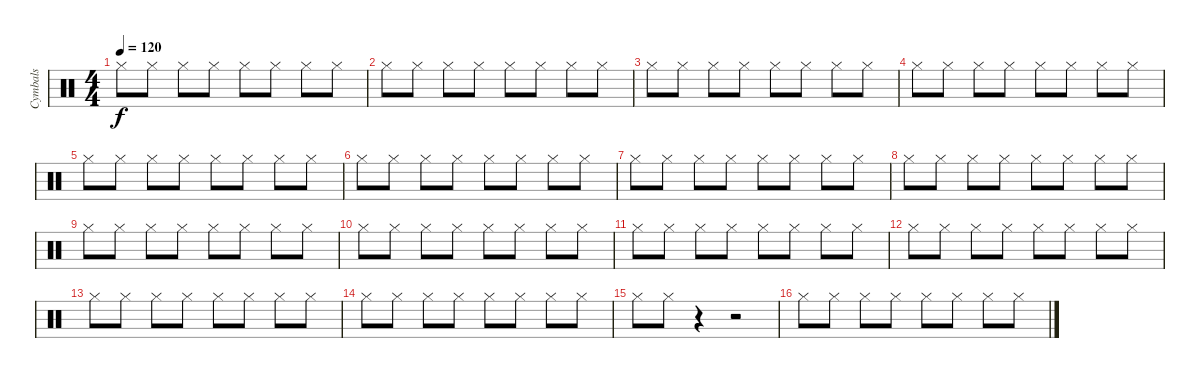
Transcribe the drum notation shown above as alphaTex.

\track ("Cymbals" "Cymbals") {instrument percussion}
\staff {score}
\articulation defaults
\ts (4 4)
\tempo 120
\clef neutral
\ks c "Hi-Hat (closed)".8{dy f} "Hi-Hat (closed)".8 "Hi-Hat (closed)".8 "Hi-Hat (closed)".8 "Hi-Hat (closed)".8 "Hi-Hat (closed)".8 "Hi-Hat (closed)".8 "Hi-Hat (closed)".8
|
"Hi-Hat (closed)".8 "Hi-Hat (closed)".8 "Hi-Hat (closed)".8 "Hi-Hat (closed)".8 "Hi-Hat (closed)".8 "Hi-Hat (closed)".8 "Hi-Hat (closed)".8 "Hi-Hat (closed)".8 |
"Hi-Hat (closed)".8 "Hi-Hat (closed)".8 "Hi-Hat (closed)".8 "Hi-Hat (closed)".8 "Hi-Hat (closed)".8 "Hi-Hat (closed)".8 "Hi-Hat (closed)".8 "Hi-Hat (closed)".8 |
"Hi-Hat (closed)".8 "Hi-Hat (closed)".8 "Hi-Hat (closed)".8 "Hi-Hat (closed)".8 "Hi-Hat (closed)".8 "Hi-Hat (closed)".8 "Hi-Hat (closed)".8 "Hi-Hat (closed)".8 |
"Hi-Hat (closed)".8 "Hi-Hat (closed)".8 "Hi-Hat (closed)".8 "Hi-Hat (closed)".8 "Hi-Hat (closed)".8 "Hi-Hat (closed)".8 "Hi-Hat (closed)".8 "Hi-Hat (closed)".8 |
"Hi-Hat (closed)".8 "Hi-Hat (closed)".8 "Hi-Hat (closed)".8 "Hi-Hat (closed)".8 "Hi-Hat (closed)".8 "Hi-Hat (closed)".8 "Hi-Hat (closed)".8 "Hi-Hat (closed)".8 |
"Hi-Hat (closed)".8 "Hi-Hat (closed)".8 "Hi-Hat (closed)".8 "Hi-Hat (closed)".8 "Hi-Hat (closed)".8 "Hi-Hat (closed)".8 "Hi-Hat (closed)".8 "Hi-Hat (closed)".8 |
"Hi-Hat (closed)".8 "Hi-Hat (closed)".8 "Hi-Hat (closed)".8 "Hi-Hat (closed)".8 "Hi-Hat (closed)".8 "Hi-Hat (closed)".8 "Hi-Hat (closed)".8 "Hi-Hat (closed)".8 |
"Hi-Hat (closed)".8 "Hi-Hat (closed)".8 "Hi-Hat (closed)".8 "Hi-Hat (closed)".8 "Hi-Hat (closed)".8 "Hi-Hat (closed)".8 "Hi-Hat (closed)".8 "Hi-Hat (closed)".8 |
"Hi-Hat (closed)".8 "Hi-Hat (closed)".8 "Hi-Hat (closed)".8 "Hi-Hat (closed)".8 "Hi-Hat (closed)".8 "Hi-Hat (closed)".8 "Hi-Hat (closed)".8 "Hi-Hat (closed)".8 |
"Hi-Hat (closed)".8 "Hi-Hat (closed)".8 "Hi-Hat (closed)".8 "Hi-Hat (closed)".8 "Hi-Hat (closed)".8 "Hi-Hat (closed)".8 "Hi-Hat (closed)".8 "Hi-Hat (closed)".8 |
"Hi-Hat (closed)".8 "Hi-Hat (closed)".8 "Hi-Hat (closed)".8 "Hi-Hat (closed)".8 "Hi-Hat (closed)".8 "Hi-Hat (closed)".8 "Hi-Hat (closed)".8 "Hi-Hat (closed)".8 |
"Hi-Hat (closed)".8 "Hi-Hat (closed)".8 "Hi-Hat (closed)".8 "Hi-Hat (closed)".8 "Hi-Hat (closed)".8 "Hi-Hat (closed)".8 "Hi-Hat (closed)".8 "Hi-Hat (closed)".8 |
"Hi-Hat (closed)".8 "Hi-Hat (closed)".8 "Hi-Hat (closed)".8 "Hi-Hat (closed)".8 "Hi-Hat (closed)".8 "Hi-Hat (closed)".8 "Hi-Hat (closed)".8 "Hi-Hat (closed)".8 |
"Hi-Hat (closed)".8 "Hi-Hat (closed)".8 r.4 r.2 |
"Hi-Hat (closed)".8 "Hi-Hat (closed)".8 "Hi-Hat (closed)".8 "Hi-Hat (closed)".8 "Hi-Hat (closed)".8 "Hi-Hat (closed)".8 "Hi-Hat (closed)".8 "Hi-Hat (closed)".8
